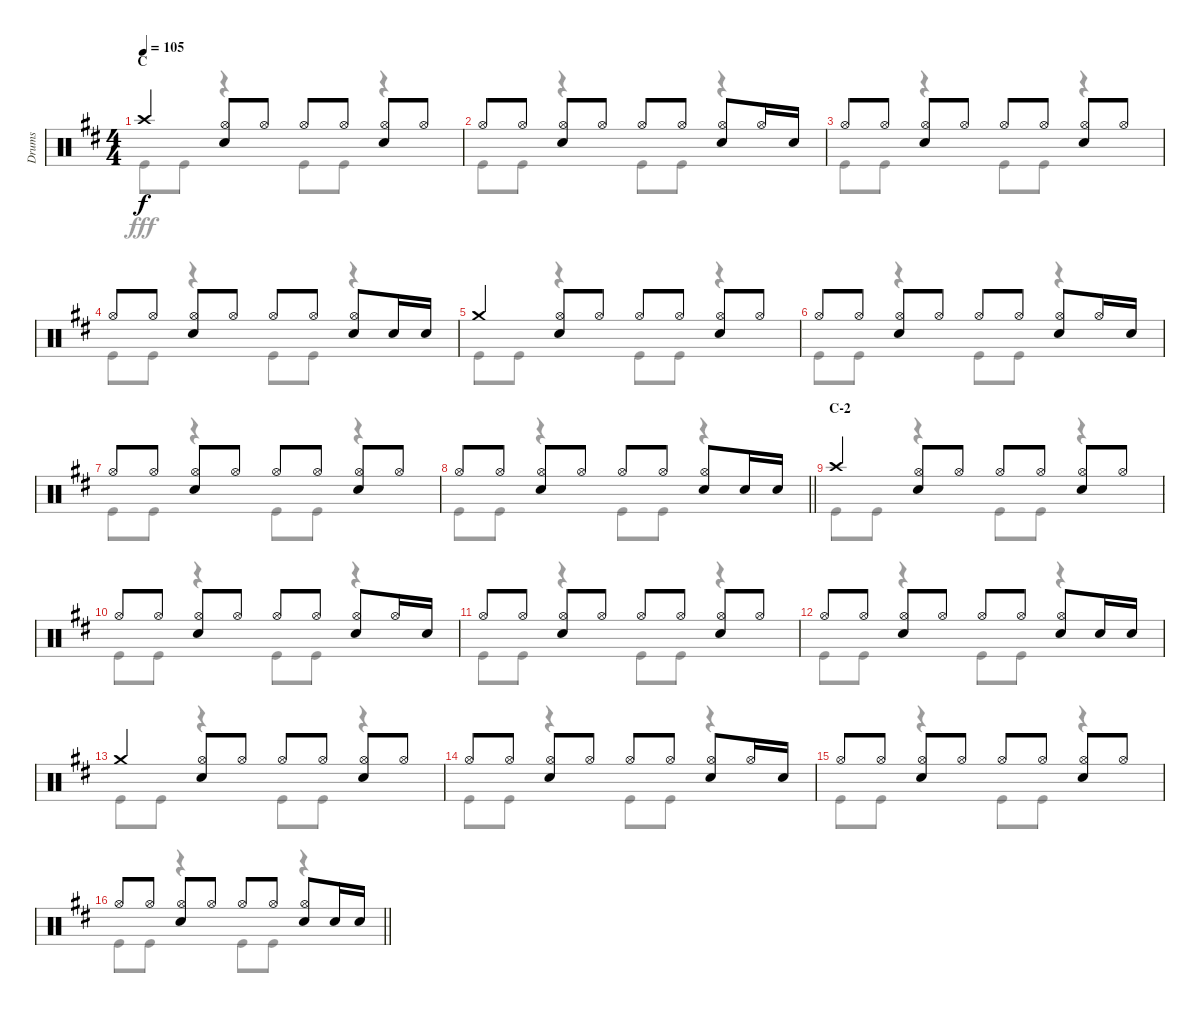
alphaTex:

\track ("Drums" "Drums") {instrument percussion}
\staff {score}
\articulation defaults
\voice
\ts (4 4)
\section ("" "C")
\tempo 105
\clef neutral
\ks d "Crash high (hit)".4{dy f}
("Hi-Hat (open)" "Snare (hit) 2").8 "Hi-Hat (open)".8 "Hi-Hat (open)".8 "Hi-Hat (open)".8 ("Hi-Hat (open)" "Snare (hit) 2").8 "Hi-Hat (open)".8 |
"Hi-Hat (open)".8 "Hi-Hat (open)".8 ("Hi-Hat (open)" "Snare (hit) 2").8 "Hi-Hat (open)".8 "Hi-Hat (open)".8 "Hi-Hat (open)".8 ("Hi-Hat (open)" "Snare (hit) 2").8 "Hi-Hat (open)".16 "Snare (hit) 2".16 |
"Hi-Hat (open)".8 "Hi-Hat (open)".8 ("Hi-Hat (open)" "Snare (hit) 2").8 "Hi-Hat (open)".8 "Hi-Hat (open)".8 "Hi-Hat (open)".8 ("Hi-Hat (open)" "Snare (hit) 2").8 "Hi-Hat (open)".8 |
"Hi-Hat (open)".8 "Hi-Hat (open)".8 ("Hi-Hat (open)" "Snare (hit) 2").8 "Hi-Hat (open)".8 "Hi-Hat (open)".8 "Hi-Hat (open)".8 ("Hi-Hat (open)" "Snare (hit) 2").8 "Snare (hit) 2".16 "Snare (hit) 2".16 |
"Crash medium (hit)".4 ("Hi-Hat (open)" "Snare (hit) 2").8 "Hi-Hat (open)".8 "Hi-Hat (open)".8 "Hi-Hat (open)".8 ("Hi-Hat (open)" "Snare (hit) 2").8 "Hi-Hat (open)".8 |
"Hi-Hat (open)".8 "Hi-Hat (open)".8 ("Hi-Hat (open)" "Snare (hit) 2").8 "Hi-Hat (open)".8 "Hi-Hat (open)".8 "Hi-Hat (open)".8 ("Hi-Hat (open)" "Snare (hit) 2").8 "Hi-Hat (open)".16 "Snare (hit) 2".16 |
"Hi-Hat (open)".8 "Hi-Hat (open)".8 ("Hi-Hat (open)" "Snare (hit) 2").8 "Hi-Hat (open)".8 "Hi-Hat (open)".8 "Hi-Hat (open)".8 ("Hi-Hat (open)" "Snare (hit) 2").8 "Hi-Hat (open)".8 |
\barLineRight lightlight "Hi-Hat (open)".8 "Hi-Hat (open)".8
("Hi-Hat (open)" "Snare (hit) 2").8 "Hi-Hat (open)".8 "Hi-Hat (open)".8 "Hi-Hat (open)".8 ("Hi-Hat (open)" "Snare (hit) 2").8 "Snare (hit) 2".16 "Snare (hit) 2".16 |
\section ("" "C-2")
"Crash high (hit)".4 ("Hi-Hat (open)" "Snare (hit) 2").8 "Hi-Hat (open)".8 "Hi-Hat (open)".8 "Hi-Hat (open)".8 ("Hi-Hat (open)" "Snare (hit) 2").8 "Hi-Hat (open)".8 |
"Hi-Hat (open)".8 "Hi-Hat (open)".8 ("Hi-Hat (open)" "Snare (hit) 2").8 "Hi-Hat (open)".8 "Hi-Hat (open)".8 "Hi-Hat (open)".8 ("Hi-Hat (open)" "Snare (hit) 2").8 "Hi-Hat (open)".16 "Snare (hit) 2".16 |
"Hi-Hat (open)".8 "Hi-Hat (open)".8 ("Hi-Hat (open)" "Snare (hit) 2").8 "Hi-Hat (open)".8 "Hi-Hat (open)".8 "Hi-Hat (open)".8 ("Hi-Hat (open)" "Snare (hit) 2").8 "Hi-Hat (open)".8 |
"Hi-Hat (open)".8 "Hi-Hat (open)".8 ("Hi-Hat (open)" "Snare (hit) 2").8 "Hi-Hat (open)".8 "Hi-Hat (open)".8 "Hi-Hat (open)".8 ("Hi-Hat (open)" "Snare (hit) 2").8 "Snare (hit) 2".16 "Snare (hit) 2".16 |
"Crash medium (hit)".4 ("Hi-Hat (open)" "Snare (hit) 2").8 "Hi-Hat (open)".8 "Hi-Hat (open)".8 "Hi-Hat (open)".8 ("Hi-Hat (open)" "Snare (hit) 2").8 "Hi-Hat (open)".8 |
"Hi-Hat (open)".8 "Hi-Hat (open)".8 ("Hi-Hat (open)" "Snare (hit) 2").8 "Hi-Hat (open)".8 "Hi-Hat (open)".8 "Hi-Hat (open)".8 ("Hi-Hat (open)" "Snare (hit) 2").8 "Hi-Hat (open)".16 "Snare (hit) 2".16 |
"Hi-Hat (open)".8 "Hi-Hat (open)".8 ("Hi-Hat (open)" "Snare (hit) 2").8 "Hi-Hat (open)".8 "Hi-Hat (open)".8 "Hi-Hat (open)".8 ("Hi-Hat (open)" "Snare (hit) 2").8 "Hi-Hat (open)".8 |
\barLineRight lightlight "Hi-Hat (open)".8 "Hi-Hat (open)".8
("Hi-Hat (open)" "Snare (hit) 2").8 "Hi-Hat (open)".8 "Hi-Hat (open)".8 "Hi-Hat (open)".8 ("Hi-Hat (open)" "Snare (hit) 2").8 "Snare (hit) 2".16 "Snare (hit) 2".16
\voice
\clef neutral
\ottava regular
\simile none
\ks d "Kick (hit)".8{dy fff} "Kick (hit)".8
r.4 "Kick (hit)".8 "Kick (hit)".8 r.4 |
"Kick (hit)".8 "Kick (hit)".8 r.4 "Kick (hit)".8 "Kick (hit)".8 r.4 |
"Kick (hit)".8 "Kick (hit)".8 r.4 "Kick (hit)".8 "Kick (hit)".8 r.4 |
"Kick (hit)".8 "Kick (hit)".8 r.4 "Kick (hit)".8 "Kick (hit)".8 r.4 |
"Kick (hit)".8 "Kick (hit)".8 r.4 "Kick (hit)".8 "Kick (hit)".8 r.4 |
"Kick (hit)".8 "Kick (hit)".8 r.4 "Kick (hit)".8 "Kick (hit)".8 r.4 |
"Kick (hit)".8 "Kick (hit)".8 r.4 "Kick (hit)".8 "Kick (hit)".8 r.4 |
\barLineRight lightlight "Kick (hit)".8 "Kick (hit)".8
r.4 "Kick (hit)".8 "Kick (hit)".8 r.4 |
"Kick (hit)".8 "Kick (hit)".8 r.4 "Kick (hit)".8 "Kick (hit)".8 r.4 |
"Kick (hit)".8 "Kick (hit)".8 r.4 "Kick (hit)".8 "Kick (hit)".8 r.4 |
"Kick (hit)".8 "Kick (hit)".8 r.4 "Kick (hit)".8 "Kick (hit)".8 r.4 |
"Kick (hit)".8 "Kick (hit)".8 r.4 "Kick (hit)".8 "Kick (hit)".8 r.4 |
"Kick (hit)".8 "Kick (hit)".8 r.4 "Kick (hit)".8 "Kick (hit)".8 r.4 |
"Kick (hit)".8 "Kick (hit)".8 r.4 "Kick (hit)".8 "Kick (hit)".8 r.4 |
"Kick (hit)".8 "Kick (hit)".8 r.4 "Kick (hit)".8 "Kick (hit)".8 r.4 |
\barLineRight lightlight "Kick (hit)".8 "Kick (hit)".8
r.4 "Kick (hit)".8 "Kick (hit)".8 r.4
